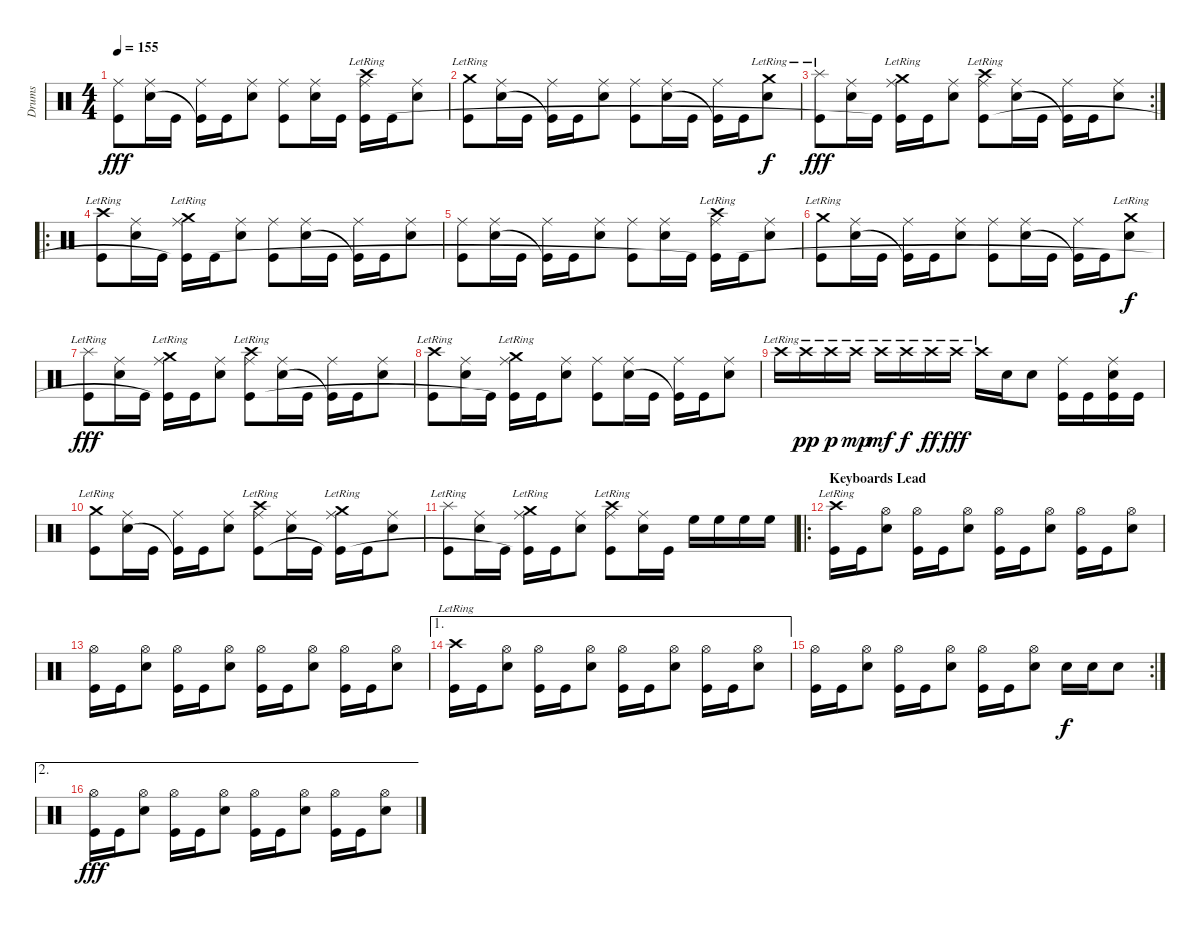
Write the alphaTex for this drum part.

\track ("Drums" "Drums") {instrument percussion}
\staff {score}
\articulation defaults
\ts (4 4)
\tempo 155
\clef neutral
\ks c
("Ride (middle)" "Kick (hit)").8{dy fff} ("Ride (middle)" "Snare (hit) 2").16 "Kick (hit)".16 ("Ride (middle)" "Kick (hit)"{t}).16 "Kick (hit)".16 ("Ride (middle)" "Snare (hit) 2").8 ("Ride (middle)" "Kick (hit)").8 ("Ride (middle)" "Snare (hit) 2").16 "Kick (hit)".16 ("Crash high (hit)"{lr} "Ride (middle)" "Kick (hit)"{t}).16 "Kick (hit)".16 ("Ride (middle)" "Snare (hit) 2").8 |
("Crash medium (hit)"{lr} "Kick (hit)").8 ("Ride (middle)" "Snare (hit) 2").16 "Kick (hit)".16 ("Ride (middle)" "Kick (hit)"{t}).16 "Kick (hit)".16 ("Ride (middle)" "Snare (hit) 2").8 ("Ride (middle)" "Kick (hit)").8 ("Ride (middle)" "Snare (hit) 2").16 "Kick (hit)".16 ("Ride (middle)" "Kick (hit)"{t}).16 "Kick (hit)".16 ("Crash medium (hit)"{lr} "Snare (hit) 2").8{dy f} |
\rc 2
("Splash (hit)"{lr} "Kick (hit)").8{dy fff} ("Ride (middle)" "Snare (hit) 2").16 "Kick (hit)".16 ("Crash medium (hit)"{lr} "Ride (middle)" "Kick (hit)"{t}).16 "Kick (hit)".16 ("Ride (middle)" "Snare (hit) 2").8 ("Crash high (hit)"{lr} "Ride (middle)" "Kick (hit)").8 ("Ride (middle)" "Snare (hit) 2").16 "Kick (hit)".16 ("Ride (middle)" "Kick (hit)"{t}).16 "Kick (hit)".16 ("Ride (middle)" "Snare (hit) 2").8 |
\ro
("Crash high (hit)"{lr} "Kick (hit)").8 ("Ride (middle)" "Snare (hit) 2").16 "Kick (hit)".16 ("Crash medium (hit)"{lr} "Ride (middle)" "Kick (hit)"{t}).16 "Kick (hit)".16 ("Ride (middle)" "Snare (hit) 2").8 ("Ride (middle)" "Kick (hit)").8 ("Ride (middle)" "Snare (hit) 2").16 "Kick (hit)".16 ("Ride (middle)" "Kick (hit)"{t}).16 "Kick (hit)".16 ("Ride (middle)" "Snare (hit) 2").8 |
("Ride (middle)" "Kick (hit)").8 ("Ride (middle)" "Snare (hit) 2").16 "Kick (hit)".16 ("Ride (middle)" "Kick (hit)"{t}).16 "Kick (hit)".16 ("Ride (middle)" "Snare (hit) 2").8 ("Ride (middle)" "Kick (hit)").8 ("Ride (middle)" "Snare (hit) 2").16 "Kick (hit)".16 ("Crash high (hit)"{lr} "Ride (middle)" "Kick (hit)"{t}).16 "Kick (hit)".16 ("Ride (middle)" "Snare (hit) 2").8 |
("Crash medium (hit)"{lr} "Kick (hit)").8 ("Ride (middle)" "Snare (hit) 2").16 "Kick (hit)".16 ("Ride (middle)" "Kick (hit)"{t}).16 "Kick (hit)".16 ("Ride (middle)" "Snare (hit) 2").8 ("Ride (middle)" "Kick (hit)").8 ("Ride (middle)" "Snare (hit) 2").16 "Kick (hit)".16 ("Ride (middle)" "Kick (hit)"{t}).16 "Kick (hit)".16 ("Crash medium (hit)"{lr} "Snare (hit) 2").8{dy f} |
("Splash (hit)"{lr} "Kick (hit)").8{dy fff} ("Ride (middle)" "Snare (hit) 2").16 "Kick (hit)".16 ("Crash medium (hit)"{lr} "Ride (middle)" "Kick (hit)"{t}).16 "Kick (hit)".16 ("Ride (middle)" "Snare (hit) 2").8 ("Crash high (hit)"{lr} "Ride (middle)" "Kick (hit)").8 ("Ride (middle)" "Snare (hit) 2").16 "Kick (hit)".16 ("Ride (middle)" "Kick (hit)"{t}).16 "Kick (hit)".16 ("Ride (middle)" "Snare (hit) 2").8 |
("Crash high (hit)"{lr} "Kick (hit)").8 ("Ride (middle)" "Snare (hit) 2").16 "Kick (hit)".16 ("Crash medium (hit)"{lr} "Ride (middle)" "Kick (hit)"{t}).16 "Kick (hit)".16 ("Ride (middle)" "Snare (hit) 2").8 ("Ride (middle)" "Kick (hit)").8 ("Ride (middle)" "Snare (hit) 2").16 "Kick (hit)".16 ("Ride (middle)" "Kick (hit)"{t}).16 "Kick (hit)".16 ("Ride (middle)" "Snare (hit) 2").8 |
"Crash high (hit)"{lr}.16 "Crash high (hit)"{lr}.16{dy pp} "Crash high (hit)"{lr}.16{dy p} "Crash high (hit)"{lr}.16{dy mp} "Crash high (hit)"{lr}.16{dy mf} "Crash high (hit)"{lr}.16{dy f} "Crash high (hit)"{lr}.16{dy ff} "Crash high (hit)"{lr}.16{dy fff} "Crash high (hit)"{lr}.16 "Snare (hit) 2".16 "Snare (hit) 2".8 ("Ride (middle)" "Kick (hit)").16 "Kick (hit)".16 ("Ride (middle)" "Snare (hit) 2" "Kick (hit)").16 "Kick (hit)".16 |
("Crash medium (hit)"{lr} "Kick (hit)").8 ("Ride (middle)" "Snare (hit) 2").16 "Kick (hit)".16 ("Ride (middle)" "Kick (hit)"{t}).16 "Kick (hit)".16 ("Ride (middle)" "Snare (hit) 2").8 ("Crash high (hit)"{lr} "Ride (middle)" "Kick (hit)").8 ("Ride (middle)" "Snare (hit) 2").16 "Kick (hit)".16 ("Crash medium (hit)"{lr} "Ride (middle)" "Kick (hit)"{t}).16 "Kick (hit)".16 ("Ride (middle)" "Snare (hit) 2").8 |
("Splash (hit)"{lr} "Kick (hit)").8 ("Ride (middle)" "Snare (hit) 2").16 "Kick (hit)".16 ("Crash medium (hit)"{lr} "Ride (middle)" "Kick (hit)"{t}).16 "Kick (hit)".16 ("Ride (middle)" "Snare (hit) 2").8 ("Crash high (hit)"{lr} "Ride (middle)" "Kick (hit)").8 ("Ride (middle)" "Snare (hit) 2").16 "Kick (hit)".16 "High Floor Tom (hit)".16{balance 13} "High Floor Tom (hit)".16 "High Floor Tom (hit)".16 "High Floor Tom (hit)".16 |
\ro
\section ("" "Keyboards Lead")
("Crash high (hit)"{lr} "Kick (hit)").16{balance 8} "Kick (hit)".16 ("Hi-Hat (open)" "Snare (hit) 2").8 ("Hi-Hat (open)" "Kick (hit)").16 "Kick (hit)".16 ("Hi-Hat (open)" "Snare (hit) 2").8 ("Hi-Hat (open)" "Kick (hit)").16 "Kick (hit)".16 ("Hi-Hat (open)" "Snare (hit) 2").8 ("Hi-Hat (open)" "Kick (hit)").16 "Kick (hit)".16 ("Hi-Hat (open)" "Snare (hit) 2").8 |
("Hi-Hat (open)" "Kick (hit)").16 "Kick (hit)".16 ("Hi-Hat (open)" "Snare (hit) 2").8 ("Hi-Hat (open)" "Kick (hit)").16 "Kick (hit)".16 ("Hi-Hat (open)" "Snare (hit) 2").8 ("Hi-Hat (open)" "Kick (hit)").16 "Kick (hit)".16 ("Hi-Hat (open)" "Snare (hit) 2").8 ("Hi-Hat (open)" "Kick (hit)").16 "Kick (hit)".16 ("Hi-Hat (open)" "Snare (hit) 2").8 |
\ae 1
("Crash high (hit)"{lr} "Kick (hit)").16 "Kick (hit)".16 ("Hi-Hat (open)" "Snare (hit) 2").8 ("Hi-Hat (open)" "Kick (hit)").16 "Kick (hit)".16 ("Hi-Hat (open)" "Snare (hit) 2").8 ("Hi-Hat (open)" "Kick (hit)").16 "Kick (hit)".16 ("Hi-Hat (open)" "Snare (hit) 2").8 ("Hi-Hat (open)" "Kick (hit)").16 "Kick (hit)".16 ("Hi-Hat (open)" "Snare (hit) 2").8 |
\rc 2
("Hi-Hat (open)" "Kick (hit)").16 "Kick (hit)".16 ("Hi-Hat (open)" "Snare (hit) 2").8 ("Hi-Hat (open)" "Kick (hit)").16 "Kick (hit)".16 ("Hi-Hat (open)" "Snare (hit) 2").8 ("Hi-Hat (open)" "Kick (hit)").16 "Kick (hit)".16 ("Hi-Hat (open)" "Snare (hit) 2").8 "Snare (hit) 2".16{dy f} "Snare (hit) 2".16 "Snare (hit) 2".8 |
\ae 2
("Hi-Hat (open)" "Kick (hit)").16{dy fff} "Kick (hit)".16 ("Hi-Hat (open)" "Snare (hit) 2").8 ("Hi-Hat (open)" "Kick (hit)").16 "Kick (hit)".16 ("Hi-Hat (open)" "Snare (hit) 2").8 ("Hi-Hat (open)" "Kick (hit)").16 "Kick (hit)".16 ("Hi-Hat (open)" "Snare (hit) 2").8 ("Hi-Hat (open)" "Kick (hit)").16 "Kick (hit)".16 ("Hi-Hat (open)" "Snare (hit) 2").8
